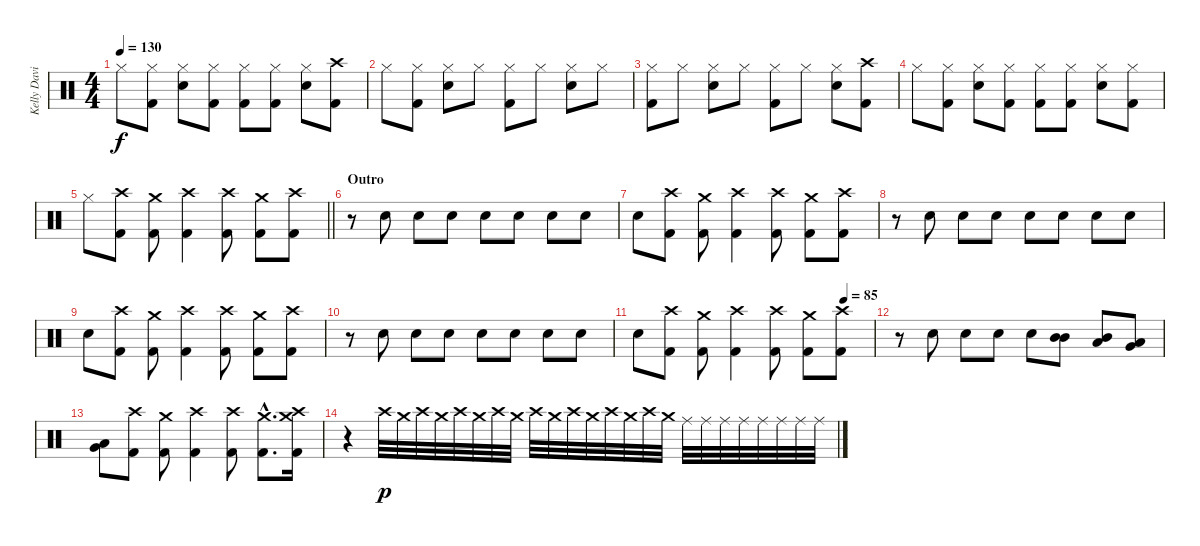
\track ("Kelly David Smith" "Kelly Davi") {instrument percussion}
\staff {score}
\articulation defaults
\ts (4 4)
\tempo 130
\clef neutral
\ks c "Hi-Hat (closed)".8{dy f}
("Hi-Hat (closed)" "Kick (hit) 2").8 ("Hi-Hat (closed)" "Snare (hit) 2").8 ("Hi-Hat (closed)" "Kick (hit) 2").8 ("Hi-Hat (closed)" "Kick (hit) 2").8 ("Hi-Hat (closed)" "Kick (hit) 2").8 ("Hi-Hat (closed)" "Snare (hit) 2").8 ("Crash high (hit)" "Kick (hit) 2").8 |
"Hi-Hat (closed)".8 ("Hi-Hat (closed)" "Kick (hit) 2").8 ("Hi-Hat (closed)" "Snare (hit) 2").8 "Hi-Hat (closed)".8 ("Hi-Hat (closed)" "Kick (hit) 2").8 "Hi-Hat (closed)".8 ("Hi-Hat (closed)" "Snare (hit) 2").8 "Hi-Hat (closed)".8 |
("Hi-Hat (closed)" "Kick (hit) 2").8 "Hi-Hat (closed)".8 ("Hi-Hat (closed)" "Snare (hit) 2").8 "Hi-Hat (closed)".8 ("Hi-Hat (closed)" "Kick (hit) 2").8 "Hi-Hat (closed)".8 ("Hi-Hat (closed)" "Snare (hit) 2").8 ("Crash high (hit)" "Kick (hit) 2").8 |
"Hi-Hat (closed)".8 ("Hi-Hat (closed)" "Kick (hit) 2").8 ("Hi-Hat (closed)" "Snare (hit) 2").8 ("Hi-Hat (closed)" "Kick (hit) 2").8 ("Hi-Hat (closed)" "Kick (hit) 2").8 ("Hi-Hat (closed)" "Kick (hit) 2").8 ("Hi-Hat (closed)" "Snare (hit) 2").8 ("Hi-Hat (closed)" "Kick (hit) 2").8 |
\barLineRight lightlight "Hi-Hat (closed)".8
("Crash high (hit)" "Kick (hit) 2").8 ("Crash medium (hit)" "Kick (hit) 2").8 ("Crash high (hit)" "Kick (hit) 2").4 ("Crash high (hit)" "Kick (hit) 2").8 ("Crash medium (hit)" "Kick (hit) 2").8 ("Crash high (hit)" "Kick (hit) 2").8 |
\section ("" "Outro")
r.8 "Snare (hit) 2".8 "Snare (hit) 2".8 "Snare (hit) 2".8 "Snare (hit) 2".8 "Snare (hit) 2".8 "Snare (hit) 2".8 "Snare (hit) 2".8 |
"Snare (hit) 2".8 ("Crash high (hit)" "Kick (hit) 2").8 ("Crash medium (hit)" "Kick (hit) 2").8 ("Crash high (hit)" "Kick (hit) 2").4 ("Crash high (hit)" "Kick (hit) 2").8 ("Crash medium (hit)" "Kick (hit) 2").8 ("Crash high (hit)" "Kick (hit) 2").8 |
r.8 "Snare (hit) 2".8 "Snare (hit) 2".8 "Snare (hit) 2".8 "Snare (hit) 2".8 "Snare (hit) 2".8 "Snare (hit) 2".8 "Snare (hit) 2".8 |
"Snare (hit) 2".8 ("Crash high (hit)" "Kick (hit) 2").8 ("Crash medium (hit)" "Kick (hit) 2").8 ("Crash high (hit)" "Kick (hit) 2").4 ("Crash high (hit)" "Kick (hit) 2").8 ("Crash medium (hit)" "Kick (hit) 2").8 ("Crash high (hit)" "Kick (hit) 2").8 |
r.8 "Snare (hit) 2".8 "Snare (hit) 2".8 "Snare (hit) 2".8 "Snare (hit) 2".8 "Snare (hit) 2".8 "Snare (hit) 2".8 "Snare (hit) 2".8 |
\tempo (85 0.875)
"Snare (hit) 2".8 ("Crash high (hit)" "Kick (hit) 2").8 ("Crash medium (hit)" "Kick (hit) 2").8 ("Crash high (hit)" "Kick (hit) 2").4 ("Crash high (hit)" "Kick (hit) 2").8 ("Crash medium (hit)" "Kick (hit) 2").8 ("Crash high (hit)" "Kick (hit) 2").8 |
r.8 "Snare (hit) 2".8 "Snare (hit) 2".8 "Snare (hit) 2".8 "Snare (hit) 2".8 ("Mid Tom (hit)" "Mid Tom (hit)").8 ("Mid Tom (hit)" "Low Tom (hit)").8 ("Low Tom (hit)" "Very Low Tom (hit)").8 |
("Very Low Tom (hit)" "Low Floor Tom (hit)").8 ("Crash high (hit)" "Kick (hit) 2").8 ("Crash medium (hit)" "Kick (hit) 2").8 ("Crash high (hit)" "Kick (hit) 2").4 ("Crash high (hit)" "Kick (hit) 2").8 ("Crash medium (hit)"{hac} "Kick (hit) 2"{hac}).8{d} ("Crash high (hit)" "Crash medium (hit)" "Kick (hit) 2").16 |
r.4 "Crash high (hit)".32{dy p} "Crash medium (hit)".32 "Crash high (hit)".32 "Crash medium (hit)".32 "Crash high (hit)".32 "Crash medium (hit)".32 "Crash high (hit)".32 "Crash medium (hit)".32 "Crash high (hit)".32 "Crash medium (hit)".32 "Crash high (hit)".32 "Crash medium (hit)".32 "Crash high (hit)".32 "Crash medium (hit)".32 "Crash high (hit)".32 "Crash medium (hit)".32 "Ride (middle)".32 "Ride (middle)".32 "Ride (middle)".32 "Ride (middle)".32 "Ride (middle)".32 "Ride (middle)".32 "Ride (middle)".32 "Ride (middle)".32
